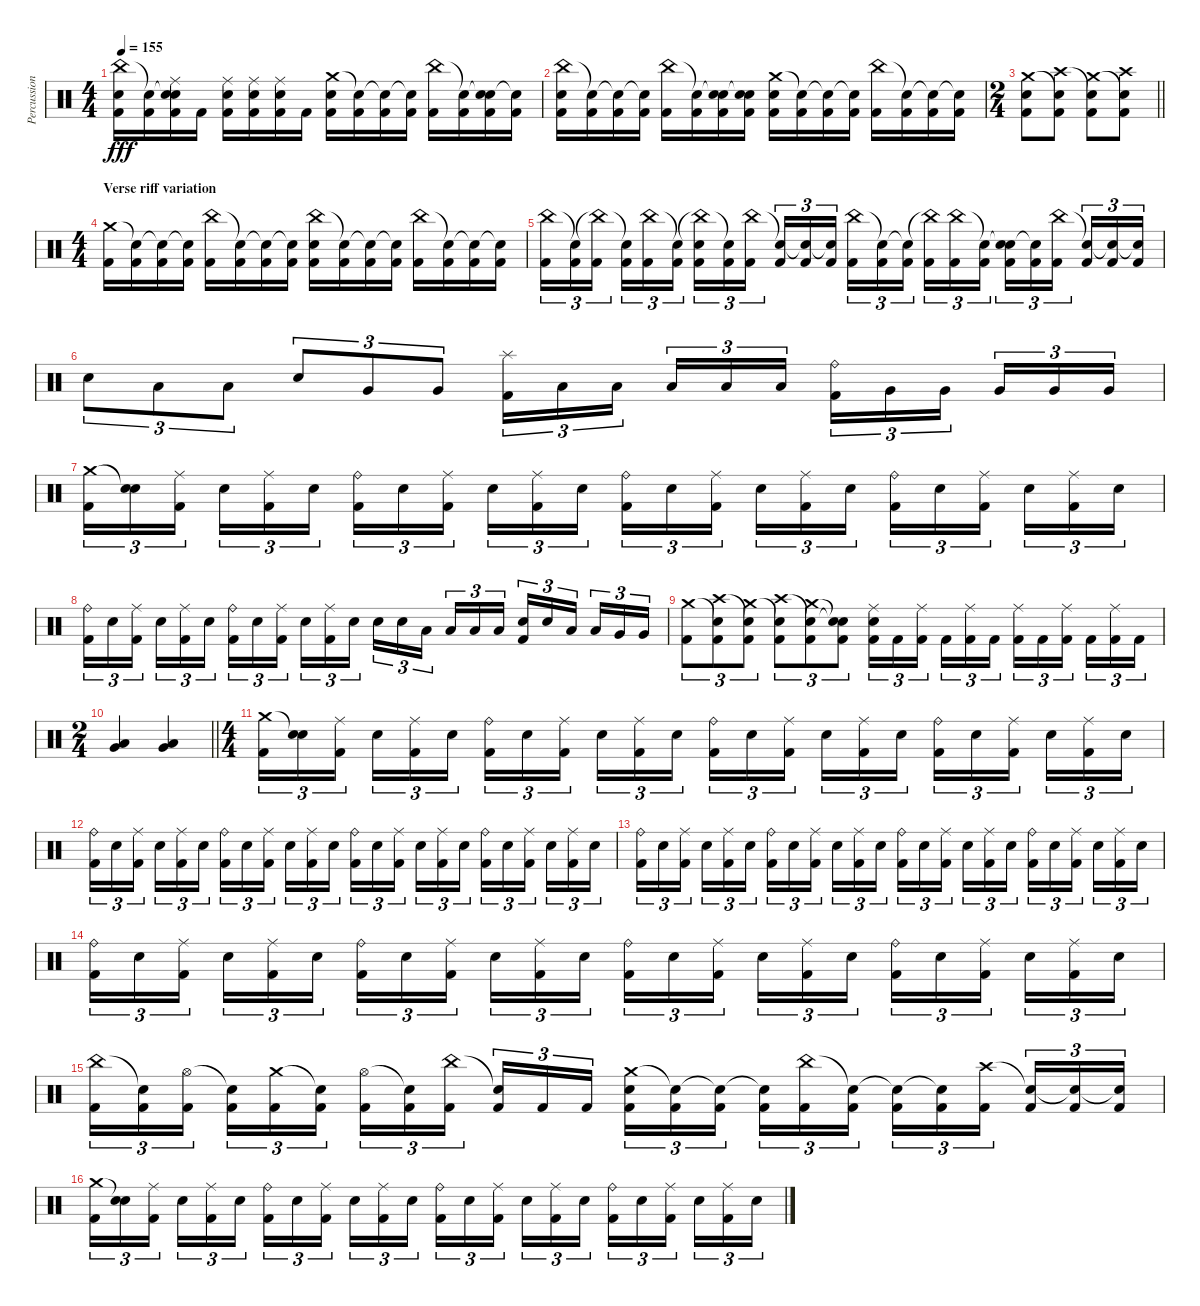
\track ("Percussion" "Percussion") {instrument percussion}
\staff {score}
\articulation defaults
\ts (4 4)
\tempo 155
\clef neutral
\ks c
("China (hit)" "Electric Snare (hit)" "Kick (hit) 2").16{dy fff} ("Snare (hit)"{t} "Kick (hit) 2").16 ("Snare (hit)"{t} "Ride (middle)" "Electric Snare (hit)" "Kick (hit) 2").16 "Kick (hit) 2".16 ("Ride (middle)" "Electric Snare (hit)" "Kick (hit) 2").16 ("Ride (middle)" "Electric Snare (hit)" "Kick (hit) 2").16 ("Ride (middle)" "Electric Snare (hit)" "Kick (hit) 2").16 "Kick (hit) 2".16 ("Crash medium (hit)" "Electric Snare (hit)" "Kick (hit) 2").16 ("Snare (hit)"{t} "Kick (hit) 2").16 ("Snare (hit)"{t} "Kick (hit) 2").16 ("Snare (hit)"{t} "Kick (hit) 2").16 ("China (hit)" "Kick (hit) 2").16 ("Snare (hit)"{t} "Kick (hit) 2").16 ("Snare (hit)"{t} "Electric Snare (hit)" "Kick (hit) 2").16 ("Snare (hit)"{t} "Kick (hit) 2").16 |
("China (hit)" "Electric Snare (hit)" "Kick (hit) 2").16 ("Snare (hit)"{t} "Kick (hit) 2").16 ("Snare (hit)"{t} "Kick (hit) 2").16 ("Snare (hit)"{t} "Kick (hit) 2").16 ("China (hit)" "Kick (hit) 2").16 ("Snare (hit)"{t} "Kick (hit) 2").16 ("Snare (hit)"{t} "Electric Snare (hit)" "Kick (hit) 2").16 ("Snare (hit)"{t} "Electric Snare (hit)" "Kick (hit) 2").16 ("Crash medium (hit)" "Electric Snare (hit)" "Kick (hit) 2").16 ("Snare (hit)"{t} "Kick (hit) 2").16 ("Snare (hit)"{t} "Kick (hit) 2").16 ("Snare (hit)"{t} "Kick (hit) 2").16 ("China (hit)" "Kick (hit) 2").16 ("Snare (hit)"{t} "Kick (hit) 2").16 ("Snare (hit)"{t} "Kick (hit) 2").16 ("Snare (hit)"{t} "Kick (hit) 2").16 |
\ts (2 4)
\barLineRight lightlight
("Crash medium (hit)" "Electric Snare (hit)" "Kick (hit) 2").8 ("Snare (hit)"{t} "Crash high (hit)" "Kick (hit) 2").8 ("Crash medium (hit)" "Snare (hit)"{t} "Kick (hit) 2").8 ("Snare (hit)"{t} "Crash high (hit)" "Kick (hit) 2").8 |
\ts (4 4)
\section ("" "Verse riff variation")
("Crash medium (hit)" "Kick (hit) 2").16 ("Snare (hit)"{t} "Kick (hit) 2").16 ("Snare (hit)"{t} "Kick (hit) 2").16 ("Snare (hit)"{t} "Kick (hit) 2").16 ("China (hit)" "Kick (hit) 2").16 ("Snare (hit)"{t} "Kick (hit) 2").16 ("Snare (hit)"{t} "Kick (hit) 2").16 ("Snare (hit)"{t} "Kick (hit) 2").16 ("China (hit)" "Electric Snare (hit)" "Kick (hit) 2").16 ("Snare (hit)"{t} "Kick (hit) 2").16 ("Snare (hit)"{t} "Kick (hit) 2").16 ("Snare (hit)"{t} "Kick (hit) 2").16 ("China (hit)" "Kick (hit) 2").16 ("Snare (hit)"{t} "Kick (hit) 2").16 ("Snare (hit)"{t} "Kick (hit) 2").16 ("Snare (hit)"{t} "Kick (hit) 2").16 |
("China (hit)" "Kick (hit) 2").16{tu (3 2)} ("Snare (hit)"{t} "Kick (hit) 2").16{tu (3 2)} ("China (hit)"{t} "Kick (hit) 2").16{tu (3 2) beam splitsecondary} ("Snare (hit)"{t} "Kick (hit) 2").16{tu (3 2)} ("China (hit)" "Kick (hit) 2").16{tu (3 2)} ("Snare (hit)"{t} "Kick (hit) 2").16{tu (3 2)} ("China (hit)"{t} "Electric Snare (hit)" "Kick (hit) 2").16{tu (3 2)} ("Snare (hit)"{t} "Kick (hit) 2").16{tu (3 2)} ("China (hit)" "Kick (hit) 2").16{tu (3 2) beam splitsecondary} ("Snare (hit)"{t} "Kick (hit) 2").16{tu (3 2)} ("Snare (hit)"{t} "Kick (hit) 2").16{tu (3 2)} ("Snare (hit)"{t} "Kick (hit) 2").16{tu (3 2)} ("China (hit)" "Kick (hit) 2").16{tu (3 2)} ("Snare (hit)"{t} "Kick (hit) 2").16{tu (3 2)} ("Snare (hit)"{t} "Kick (hit) 2").16{tu (3 2) beam splitsecondary} ("China (hit)"{t} "Kick (hit) 2").16{tu (3 2)} ("China (hit)" "Kick (hit) 2").16{tu (3 2)} ("Snare (hit)"{t} "Kick (hit) 2").16{tu (3 2)} ("Snare (hit)"{t} "Electric Snare (hit)" "Kick (hit) 2").16{tu (3 2)} ("Snare (hit)"{t} "Kick (hit) 2").16{tu (3 2)} ("China (hit)" "Kick (hit) 2").16{tu (3 2) beam splitsecondary} ("Snare (hit)"{t} "Kick (hit) 2").16{tu (3 2)} ("Snare (hit)"{t} "Kick (hit) 2").16{tu (3 2)} ("Snare (hit)"{t} "Kick (hit) 2").16{tu (3 2)} |
"Electric Snare (hit)".8{tu (3 2)} "Low Tom (hit)".8{tu (3 2)} "Low Tom (hit)".8{tu (3 2)} "Electric Snare (hit)".8{tu (3 2)} "Very Low Tom (hit)".8{tu (3 2)} "Very Low Tom (hit)".8{tu (3 2)} ("Splash (hit)" "Kick (hit) 2").16{tu (3 2)} "Low Tom (hit)".16{tu (3 2)} "Low Tom (hit)".16{tu (3 2) beam splitsecondary} "Low Tom (hit)".16{tu (3 2)} "Low Tom (hit)".16{tu (3 2)} "Low Tom (hit)".16{tu (3 2)} ("Ride (bell)" "Kick (hit) 2").16{tu (3 2)} "Very Low Tom (hit)".16{tu (3 2)} "Very Low Tom (hit)".16{tu (3 2) beam splitsecondary} "Very Low Tom (hit)".16{tu (3 2)} "Very Low Tom (hit)".16{tu (3 2)} "Very Low Tom (hit)".16{tu (3 2)} |
("Crash medium (hit)" "Kick (hit) 2").16{tu (3 2)} ("Snare (hit)"{t} "Electric Snare (hit)").16{tu (3 2)} ("Ride (middle)" "Kick (hit) 2").16{tu (3 2) beam splitsecondary} "Electric Snare (hit)".16{tu (3 2)} ("Ride (middle)" "Kick (hit) 2").16{tu (3 2)} "Electric Snare (hit)".16{tu (3 2)} ("Ride (bell)" "Kick (hit) 2").16{tu (3 2)} "Electric Snare (hit)".16{tu (3 2)} ("Ride (middle)" "Kick (hit) 2").16{tu (3 2) beam splitsecondary} "Electric Snare (hit)".16{tu (3 2)} ("Ride (middle)" "Kick (hit) 2").16{tu (3 2)} "Electric Snare (hit)".16{tu (3 2)} ("Ride (bell)" "Kick (hit) 2").16{tu (3 2)} "Electric Snare (hit)".16{tu (3 2)} ("Ride (middle)" "Kick (hit) 2").16{tu (3 2) beam splitsecondary} "Electric Snare (hit)".16{tu (3 2)} ("Ride (middle)" "Kick (hit) 2").16{tu (3 2)} "Electric Snare (hit)".16{tu (3 2)} ("Ride (bell)" "Kick (hit) 2").16{tu (3 2)} "Electric Snare (hit)".16{tu (3 2)} ("Ride (middle)" "Kick (hit) 2").16{tu (3 2) beam splitsecondary} "Electric Snare (hit)".16{tu (3 2)} ("Ride (middle)" "Kick (hit) 2").16{tu (3 2)} "Electric Snare (hit)".16{tu (3 2)} |
("Ride (bell)" "Kick (hit) 2").16{tu (3 2)} "Electric Snare (hit)".16{tu (3 2)} ("Ride (middle)" "Kick (hit) 2").16{tu (3 2) beam splitsecondary} "Electric Snare (hit)".16{tu (3 2)} ("Ride (middle)" "Kick (hit) 2").16{tu (3 2)} "Electric Snare (hit)".16{tu (3 2)} ("Ride (bell)" "Kick (hit) 2").16{tu (3 2)} "Electric Snare (hit)".16{tu (3 2)} ("Ride (middle)" "Kick (hit) 2").16{tu (3 2) beam splitsecondary} "Electric Snare (hit)".16{tu (3 2)} ("Ride (middle)" "Kick (hit) 2").16{tu (3 2)} "Electric Snare (hit)".16{tu (3 2)} "Electric Snare (hit)".16{tu (3 2)} "Electric Snare (hit)".16{tu (3 2)} "Low Tom (hit)".16{tu (3 2) beam splitsecondary} "Low Tom (hit)".16{tu (3 2)} "Low Tom (hit)".16{tu (3 2)} "Low Tom (hit)".16{tu (3 2)} ("Electric Snare (hit)" "Kick (hit) 2").16{tu (3 2)} "Electric Snare (hit)".16{tu (3 2)} "Low Tom (hit)".16{tu (3 2) beam splitsecondary} "Low Tom (hit)".16{tu (3 2)} "Very Low Tom (hit)".16{tu (3 2)} "Very Low Tom (hit)".16{tu (3 2)} |
("Crash medium (hit)" "Kick (hit) 2").8{tu (3 2)} ("Snare (hit)"{t} "Crash high (hit)" "Kick (hit) 2").8{tu (3 2)} ("Crash medium (hit)" "Snare (hit)"{t} "Kick (hit) 2").8{tu (3 2)} ("Snare (hit)"{t} "Crash high (hit)" "Kick (hit) 2").8{tu (3 2)} ("Crash medium (hit)" "Snare (hit)"{t} "Kick (hit) 2").8{tu (3 2)} ("Snare (hit)"{t} "Snare (hit)"{t} "Kick (hit) 2").8{tu (3 2)} ("Ride (middle)" "Electric Snare (hit)" "Kick (hit) 2").16{tu (3 2)} "Kick (hit) 2".16{tu (3 2)} ("Ride (middle)" "Kick (hit) 2").16{tu (3 2) beam splitsecondary} "Kick (hit) 2".16{tu (3 2)} ("Ride (middle)" "Kick (hit) 2").16{tu (3 2)} "Kick (hit) 2".16{tu (3 2)} ("Ride (middle)" "Kick (hit) 2").16{tu (3 2)} "Kick (hit) 2".16{tu (3 2)} ("Ride (middle)" "Kick (hit) 2").16{tu (3 2) beam splitsecondary} "Kick (hit) 2".16{tu (3 2)} ("Ride (middle)" "Kick (hit) 2").16{tu (3 2)} "Kick (hit) 2".16{tu (3 2)} |
\ts (2 4)
\barLineRight lightlight
("Low Tom (hit)" "Very Low Tom (hit)").4 ("Low Tom (hit)" "Very Low Tom (hit)").4 |
\ts (4 4)
\section ("" "")
("Crash medium (hit)" "Kick (hit) 2").16{tu (3 2)} ("Snare (hit)"{t} "Electric Snare (hit)").16{tu (3 2)} ("Ride (middle)" "Kick (hit) 2").16{tu (3 2) beam splitsecondary} "Electric Snare (hit)".16{tu (3 2)} ("Ride (middle)" "Kick (hit) 2").16{tu (3 2)} "Electric Snare (hit)".16{tu (3 2)} ("Ride (bell)" "Kick (hit) 2").16{tu (3 2)} "Electric Snare (hit)".16{tu (3 2)} ("Ride (middle)" "Kick (hit) 2").16{tu (3 2) beam splitsecondary} "Electric Snare (hit)".16{tu (3 2)} ("Ride (middle)" "Kick (hit) 2").16{tu (3 2)} "Electric Snare (hit)".16{tu (3 2)} ("Ride (bell)" "Kick (hit) 2").16{tu (3 2)} "Electric Snare (hit)".16{tu (3 2)} ("Ride (middle)" "Kick (hit) 2").16{tu (3 2) beam splitsecondary} "Electric Snare (hit)".16{tu (3 2)} ("Ride (middle)" "Kick (hit) 2").16{tu (3 2)} "Electric Snare (hit)".16{tu (3 2)} ("Ride (bell)" "Kick (hit) 2").16{tu (3 2)} "Electric Snare (hit)".16{tu (3 2)} ("Ride (middle)" "Kick (hit) 2").16{tu (3 2) beam splitsecondary} "Electric Snare (hit)".16{tu (3 2)} ("Ride (middle)" "Kick (hit) 2").16{tu (3 2)} "Electric Snare (hit)".16{tu (3 2)} |
("Ride (bell)" "Kick (hit) 2").16{tu (3 2)} "Electric Snare (hit)".16{tu (3 2)} ("Ride (middle)" "Kick (hit) 2").16{tu (3 2) beam splitsecondary} "Electric Snare (hit)".16{tu (3 2)} ("Ride (middle)" "Kick (hit) 2").16{tu (3 2)} "Electric Snare (hit)".16{tu (3 2)} ("Ride (bell)" "Kick (hit) 2").16{tu (3 2)} "Electric Snare (hit)".16{tu (3 2)} ("Ride (middle)" "Kick (hit) 2").16{tu (3 2) beam splitsecondary} "Electric Snare (hit)".16{tu (3 2)} ("Ride (middle)" "Kick (hit) 2").16{tu (3 2)} "Electric Snare (hit)".16{tu (3 2)} ("Ride (bell)" "Kick (hit) 2").16{tu (3 2)} "Electric Snare (hit)".16{tu (3 2)} ("Ride (middle)" "Kick (hit) 2").16{tu (3 2) beam splitsecondary} "Electric Snare (hit)".16{tu (3 2)} ("Ride (middle)" "Kick (hit) 2").16{tu (3 2)} "Electric Snare (hit)".16{tu (3 2)} ("Ride (bell)" "Kick (hit) 2").16{tu (3 2)} "Electric Snare (hit)".16{tu (3 2)} ("Ride (middle)" "Kick (hit) 2").16{tu (3 2) beam splitsecondary} "Electric Snare (hit)".16{tu (3 2)} ("Ride (middle)" "Kick (hit) 2").16{tu (3 2)} "Electric Snare (hit)".16{tu (3 2)} |
("Ride (bell)" "Kick (hit) 2").16{tu (3 2)} "Electric Snare (hit)".16{tu (3 2)} ("Ride (middle)" "Kick (hit) 2").16{tu (3 2) beam splitsecondary} "Electric Snare (hit)".16{tu (3 2)} ("Ride (middle)" "Kick (hit) 2").16{tu (3 2)} "Electric Snare (hit)".16{tu (3 2)} ("Ride (bell)" "Kick (hit) 2").16{tu (3 2)} "Electric Snare (hit)".16{tu (3 2)} ("Ride (middle)" "Kick (hit) 2").16{tu (3 2) beam splitsecondary} "Electric Snare (hit)".16{tu (3 2)} ("Ride (middle)" "Kick (hit) 2").16{tu (3 2)} "Electric Snare (hit)".16{tu (3 2)} ("Ride (bell)" "Kick (hit) 2").16{tu (3 2)} "Electric Snare (hit)".16{tu (3 2)} ("Ride (middle)" "Kick (hit) 2").16{tu (3 2) beam splitsecondary} "Electric Snare (hit)".16{tu (3 2)} ("Ride (middle)" "Kick (hit) 2").16{tu (3 2)} "Electric Snare (hit)".16{tu (3 2)} ("Ride (bell)" "Kick (hit) 2").16{tu (3 2)} "Electric Snare (hit)".16{tu (3 2)} ("Ride (middle)" "Kick (hit) 2").16{tu (3 2) beam splitsecondary} "Electric Snare (hit)".16{tu (3 2)} ("Ride (middle)" "Kick (hit) 2").16{tu (3 2)} "Electric Snare (hit)".16{tu (3 2)} |
("Ride (bell)" "Kick (hit) 2").16{tu (3 2)} "Electric Snare (hit)".16{tu (3 2)} ("Ride (middle)" "Kick (hit) 2").16{tu (3 2) beam splitsecondary} "Electric Snare (hit)".16{tu (3 2)} ("Ride (middle)" "Kick (hit) 2").16{tu (3 2)} "Electric Snare (hit)".16{tu (3 2)} ("Ride (bell)" "Kick (hit) 2").16{tu (3 2)} "Electric Snare (hit)".16{tu (3 2)} ("Ride (middle)" "Kick (hit) 2").16{tu (3 2) beam splitsecondary} "Electric Snare (hit)".16{tu (3 2)} ("Ride (middle)" "Kick (hit) 2").16{tu (3 2)} "Electric Snare (hit)".16{tu (3 2)} ("Ride (bell)" "Kick (hit) 2").16{tu (3 2)} "Electric Snare (hit)".16{tu (3 2)} ("Ride (middle)" "Kick (hit) 2").16{tu (3 2) beam splitsecondary} "Electric Snare (hit)".16{tu (3 2)} ("Ride (middle)" "Kick (hit) 2").16{tu (3 2)} "Electric Snare (hit)".16{tu (3 2)} ("Ride (bell)" "Kick (hit) 2").16{tu (3 2)} "Electric Snare (hit)".16{tu (3 2)} ("Ride (middle)" "Kick (hit) 2").16{tu (3 2) beam splitsecondary} "Electric Snare (hit)".16{tu (3 2)} ("Ride (middle)" "Kick (hit) 2").16{tu (3 2)} "Electric Snare (hit)".16{tu (3 2)} |
("China (hit)" "Kick (hit) 2").16{tu (3 2)} ("Snare (hit)"{t} "Kick (hit) 2").16{tu (3 2)} ("Hi-Hat (open)" "Kick (hit) 2").16{tu (3 2) beam splitsecondary} ("Snare (hit)"{t} "Kick (hit) 2").16{tu (3 2)} ("Crash medium (hit)" "Kick (hit) 2").16{tu (3 2)} ("Snare (hit)"{t} "Kick (hit) 2").16{tu (3 2)} ("Hi-Hat (open)" "Kick (hit) 2").16{tu (3 2)} ("Snare (hit)"{t} "Kick (hit) 2").16{tu (3 2)} ("China (hit)" "Kick (hit) 2").16{tu (3 2) beam splitsecondary} ("Snare (hit)"{t} "Kick (hit) 2").16{tu (3 2)} "Kick (hit) 2".16{tu (3 2)} "Kick (hit) 2".16{tu (3 2)} ("Crash medium (hit)" "Electric Snare (hit)" "Kick (hit) 2").16{tu (3 2)} ("Snare (hit)"{t} "Kick (hit) 2").16{tu (3 2)} ("Snare (hit)"{t} "Kick (hit) 2").16{tu (3 2) beam splitsecondary} ("Snare (hit)"{t} "Kick (hit) 2").16{tu (3 2)} ("China (hit)" "Kick (hit) 2").16{tu (3 2)} ("Snare (hit)"{t} "Kick (hit) 2").16{tu (3 2)} ("Snare (hit)"{t} "Kick (hit) 2").16{tu (3 2)} ("Snare (hit)"{t} "Kick (hit) 2").16{tu (3 2)} ("Crash high (hit)" "Kick (hit) 2").16{tu (3 2) beam splitsecondary} ("Snare (hit)"{t} "Kick (hit) 2").16{tu (3 2)} ("Snare (hit)"{t} "Kick (hit) 2").16{tu (3 2)} ("Snare (hit)"{t} "Kick (hit) 2").16{tu (3 2)} |
("Crash medium (hit)" "Kick (hit) 2").16{tu (3 2)} ("Snare (hit)"{t} "Electric Snare (hit)").16{tu (3 2)} ("Ride (middle)" "Kick (hit) 2").16{tu (3 2) beam splitsecondary} "Electric Snare (hit)".16{tu (3 2)} ("Ride (middle)" "Kick (hit) 2").16{tu (3 2)} "Electric Snare (hit)".16{tu (3 2)} ("Ride (bell)" "Kick (hit) 2").16{tu (3 2)} "Electric Snare (hit)".16{tu (3 2)} ("Ride (middle)" "Kick (hit) 2").16{tu (3 2) beam splitsecondary} "Electric Snare (hit)".16{tu (3 2)} ("Ride (middle)" "Kick (hit) 2").16{tu (3 2)} "Electric Snare (hit)".16{tu (3 2)} ("Ride (bell)" "Kick (hit) 2").16{tu (3 2)} "Electric Snare (hit)".16{tu (3 2)} ("Ride (middle)" "Kick (hit) 2").16{tu (3 2) beam splitsecondary} "Electric Snare (hit)".16{tu (3 2)} ("Ride (middle)" "Kick (hit) 2").16{tu (3 2)} "Electric Snare (hit)".16{tu (3 2)} ("Ride (bell)" "Kick (hit) 2").16{tu (3 2)} "Electric Snare (hit)".16{tu (3 2)} ("Ride (middle)" "Kick (hit) 2").16{tu (3 2) beam splitsecondary} "Electric Snare (hit)".16{tu (3 2)} ("Ride (middle)" "Kick (hit) 2").16{tu (3 2)} "Electric Snare (hit)".16{tu (3 2)}
